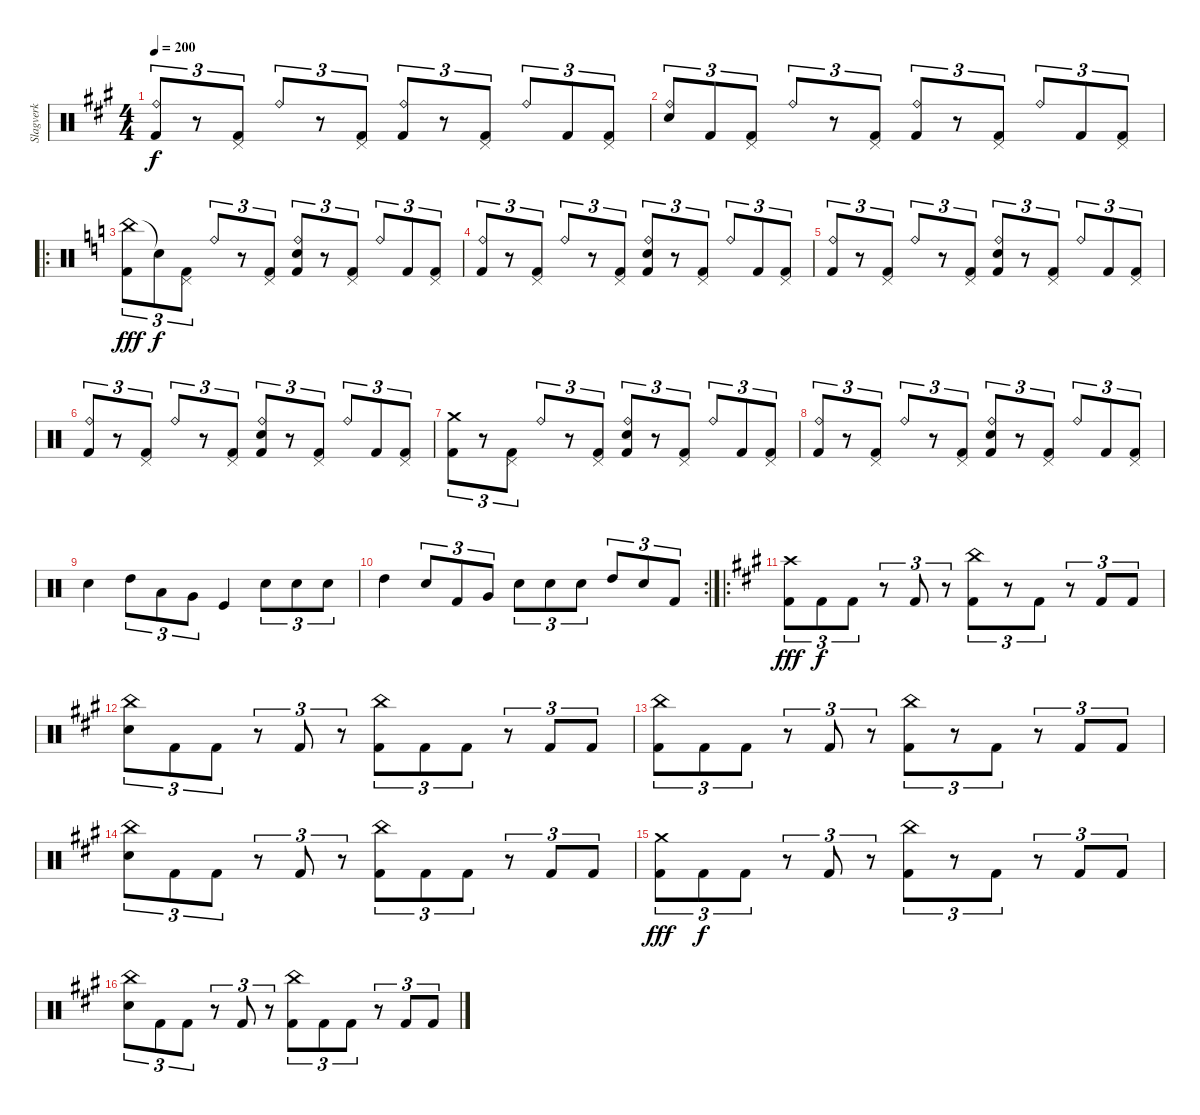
\track ("Slagverk" "Slagverk") {instrument percussion}
\staff {score}
\articulation defaults
\ts (4 4)
\tempo 200
\clef neutral
\ks a
("Ride (bell)" "Kick (hit) 2").8{tu (3 2) dy f} r.8{tu (3 2)} ("Pedal Hi-Hat (hit)" "Kick (hit) 2").8{tu (3 2)} "Ride (bell)".8{tu (3 2)} r.8{tu (3 2)} ("Pedal Hi-Hat (hit)" "Kick (hit) 2").8{tu (3 2)} ("Ride (bell)" "Kick (hit) 2").8{tu (3 2)} r.8{tu (3 2)} ("Pedal Hi-Hat (hit)" "Kick (hit) 2").8{tu (3 2)} "Ride (bell)".8{tu (3 2)} "Kick (hit) 2".8{tu (3 2)} ("Pedal Hi-Hat (hit)" "Kick (hit) 2").8{tu (3 2)} |
("Ride (bell)" "Snare (hit) 2").8{tu (3 2)} "Kick (hit) 2".8{tu (3 2)} ("Pedal Hi-Hat (hit)" "Kick (hit) 2").8{tu (3 2)} "Ride (bell)".8{tu (3 2)} r.8{tu (3 2)} ("Pedal Hi-Hat (hit)" "Kick (hit) 2").8{tu (3 2)} ("Ride (bell)" "Kick (hit) 2").8{tu (3 2)} r.8{tu (3 2)} ("Pedal Hi-Hat (hit)" "Kick (hit) 2").8{tu (3 2)} "Ride (bell)".8{tu (3 2)} "Kick (hit) 2".8{tu (3 2)} ("Pedal Hi-Hat (hit)" "Kick (hit) 2").8{tu (3 2)} |
\ro
\ks c
("China (hit)" "Kick (hit) 2").8{tu (3 2) dy fff} "Snare (hit)"{t}.8{tu (3 2) dy f} ("Pedal Hi-Hat (hit)" "Kick (hit) 2").8{tu (3 2)} "Ride (bell)".8{tu (3 2)} r.8{tu (3 2)} ("Pedal Hi-Hat (hit)" "Kick (hit) 2").8{tu (3 2)} ("Ride (bell)" "Snare (hit) 2" "Kick (hit) 2").8{tu (3 2)} r.8{tu (3 2)} ("Pedal Hi-Hat (hit)" "Kick (hit) 2").8{tu (3 2)} "Ride (bell)".8{tu (3 2)} "Kick (hit) 2".8{tu (3 2)} ("Pedal Hi-Hat (hit)" "Kick (hit) 2").8{tu (3 2)} |
("Ride (bell)" "Kick (hit) 2").8{tu (3 2)} r.8{tu (3 2)} ("Pedal Hi-Hat (hit)" "Kick (hit) 2").8{tu (3 2)} "Ride (bell)".8{tu (3 2)} r.8{tu (3 2)} ("Pedal Hi-Hat (hit)" "Kick (hit) 2").8{tu (3 2)} ("Ride (bell)" "Snare (hit) 2" "Kick (hit) 2").8{tu (3 2)} r.8{tu (3 2)} ("Pedal Hi-Hat (hit)" "Kick (hit) 2").8{tu (3 2)} "Ride (bell)".8{tu (3 2)} "Kick (hit) 2".8{tu (3 2)} ("Pedal Hi-Hat (hit)" "Kick (hit) 2").8{tu (3 2)} |
("Ride (bell)" "Kick (hit) 2").8{tu (3 2)} r.8{tu (3 2)} ("Pedal Hi-Hat (hit)" "Kick (hit) 2").8{tu (3 2)} "Ride (bell)".8{tu (3 2)} r.8{tu (3 2)} ("Pedal Hi-Hat (hit)" "Kick (hit) 2").8{tu (3 2)} ("Ride (bell)" "Snare (hit) 2" "Kick (hit) 2").8{tu (3 2)} r.8{tu (3 2)} ("Pedal Hi-Hat (hit)" "Kick (hit) 2").8{tu (3 2)} "Ride (bell)".8{tu (3 2)} "Kick (hit) 2".8{tu (3 2)} ("Pedal Hi-Hat (hit)" "Kick (hit) 2").8{tu (3 2)} |
("Ride (bell)" "Kick (hit) 2").8{tu (3 2)} r.8{tu (3 2)} ("Pedal Hi-Hat (hit)" "Kick (hit) 2").8{tu (3 2)} "Ride (bell)".8{tu (3 2)} r.8{tu (3 2)} ("Pedal Hi-Hat (hit)" "Kick (hit) 2").8{tu (3 2)} ("Ride (bell)" "Snare (hit) 2" "Kick (hit) 2").8{tu (3 2)} r.8{tu (3 2)} ("Pedal Hi-Hat (hit)" "Kick (hit) 2").8{tu (3 2)} "Ride (bell)".8{tu (3 2)} "Kick (hit) 2".8{tu (3 2)} ("Pedal Hi-Hat (hit)" "Kick (hit) 2").8{tu (3 2)} |
("Crash medium (hit)" "Kick (hit) 2").8{tu (3 2)} r.8{tu (3 2)} ("Pedal Hi-Hat (hit)" "Kick (hit) 2").8{tu (3 2)} "Ride (bell)".8{tu (3 2)} r.8{tu (3 2)} ("Pedal Hi-Hat (hit)" "Kick (hit) 2").8{tu (3 2)} ("Ride (bell)" "Snare (hit) 2" "Kick (hit) 2").8{tu (3 2)} r.8{tu (3 2)} ("Pedal Hi-Hat (hit)" "Kick (hit) 2").8{tu (3 2)} "Ride (bell)".8{tu (3 2)} "Kick (hit) 2".8{tu (3 2)} ("Pedal Hi-Hat (hit)" "Kick (hit) 2").8{tu (3 2)} |
("Ride (bell)" "Kick (hit) 2").8{tu (3 2)} r.8{tu (3 2)} ("Pedal Hi-Hat (hit)" "Kick (hit) 2").8{tu (3 2)} "Ride (bell)".8{tu (3 2)} r.8{tu (3 2)} ("Pedal Hi-Hat (hit)" "Kick (hit) 2").8{tu (3 2)} ("Ride (bell)" "Snare (hit) 2" "Kick (hit) 2").8{tu (3 2)} r.8{tu (3 2)} ("Pedal Hi-Hat (hit)" "Kick (hit) 2").8{tu (3 2)} "Ride (bell)".8{tu (3 2)} "Kick (hit) 2".8{tu (3 2)} ("Pedal Hi-Hat (hit)" "Kick (hit) 2").8{tu (3 2)} |
"Snare (hit) 2".4 "High Tom (hit)".8{tu (3 2)} "Low Tom (hit)".8{tu (3 2)} "Very Low Tom (hit)".8{tu (3 2)} "Kick (hit)".4 "Snare (hit) 2".8{tu (3 2)} "Snare (hit) 2".8{tu (3 2)} "Snare (hit) 2".8{tu (3 2)} |
\rc 2 "High Tom (hit)".4 "Snare (hit) 2".8{tu (3 2)} "Kick (hit) 2".8{tu (3 2)} "Very Low Tom (hit)".8{tu (3 2)} "Snare (hit) 2".8{tu (3 2)} "Snare (hit) 2".8{tu (3 2)} "Snare (hit) 2".8{tu (3 2)} "High Tom (hit)".8{tu (3 2)} "Snare (hit) 2".8{tu (3 2)} "Kick (hit) 2".8{tu (3 2)}
|
\ro
\ks a
("Crash high (hit)" "Kick (hit) 2").8{tu (3 2) dy fff} "Kick (hit) 2".8{tu (3 2) dy f} "Kick (hit) 2".8{tu (3 2)} r.8{tu (3 2)} "Kick (hit) 2".8{tu (3 2)} r.8{tu (3 2)} ("China (hit)" "Kick (hit) 2").8{tu (3 2)} r.8{tu (3 2)} "Kick (hit) 2".8{tu (3 2)} r.8{tu (3 2)} "Kick (hit) 2".8{tu (3 2)} "Kick (hit) 2".8{tu (3 2)} |
("China (hit)" "Snare (hit) 2").8{tu (3 2)} "Kick (hit) 2".8{tu (3 2)} "Kick (hit) 2".8{tu (3 2)} r.8{tu (3 2)} "Kick (hit) 2".8{tu (3 2)} r.8{tu (3 2)} ("China (hit)" "Kick (hit) 2").8{tu (3 2)} "Kick (hit) 2".8{tu (3 2)} "Kick (hit) 2".8{tu (3 2)} r.8{tu (3 2)} "Kick (hit) 2".8{tu (3 2)} "Kick (hit) 2".8{tu (3 2)} |
("China (hit)" "Kick (hit) 2").8{tu (3 2)} "Kick (hit) 2".8{tu (3 2)} "Kick (hit) 2".8{tu (3 2)} r.8{tu (3 2)} "Kick (hit) 2".8{tu (3 2)} r.8{tu (3 2)} ("China (hit)" "Kick (hit) 2").8{tu (3 2)} r.8{tu (3 2)} "Kick (hit) 2".8{tu (3 2)} r.8{tu (3 2)} "Kick (hit) 2".8{tu (3 2)} "Kick (hit) 2".8{tu (3 2)} |
("China (hit)" "Snare (hit) 2").8{tu (3 2)} "Kick (hit) 2".8{tu (3 2)} "Kick (hit) 2".8{tu (3 2)} r.8{tu (3 2)} "Kick (hit) 2".8{tu (3 2)} r.8{tu (3 2)} ("China (hit)" "Kick (hit) 2").8{tu (3 2)} "Kick (hit) 2".8{tu (3 2)} "Kick (hit) 2".8{tu (3 2)} r.8{tu (3 2)} "Kick (hit) 2".8{tu (3 2)} "Kick (hit) 2".8{tu (3 2)} |
("Crash medium (hit)" "Kick (hit) 2").8{tu (3 2) dy fff} "Kick (hit) 2".8{tu (3 2) dy f} "Kick (hit) 2".8{tu (3 2)} r.8{tu (3 2)} "Kick (hit) 2".8{tu (3 2)} r.8{tu (3 2)} ("China (hit)" "Kick (hit) 2").8{tu (3 2)} r.8{tu (3 2)} "Kick (hit) 2".8{tu (3 2)} r.8{tu (3 2)} "Kick (hit) 2".8{tu (3 2)} "Kick (hit) 2".8{tu (3 2)} |
("China (hit)" "Snare (hit) 2").8{tu (3 2)} "Kick (hit) 2".8{tu (3 2)} "Kick (hit) 2".8{tu (3 2)} r.8{tu (3 2)} "Kick (hit) 2".8{tu (3 2)} r.8{tu (3 2)} ("China (hit)" "Kick (hit) 2").8{tu (3 2)} "Kick (hit) 2".8{tu (3 2)} "Kick (hit) 2".8{tu (3 2)} r.8{tu (3 2)} "Kick (hit) 2".8{tu (3 2)} "Kick (hit) 2".8{tu (3 2)}
